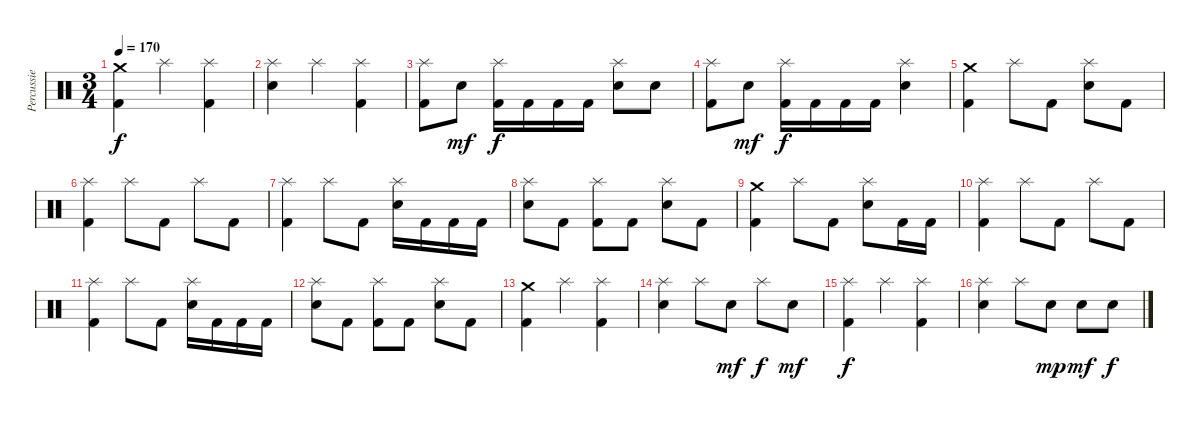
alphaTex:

\track ("Percussie" "Percussie") {instrument percussion}
\staff {score}
\articulation defaults
\ts (3 4)
\tempo 170
\clef neutral
\ks c
("Crash medium (hit)" "Kick (hit) 2").4{dy f} "Splash (hit)".4 ("Splash (hit)" "Kick (hit) 2").4 |
("Splash (hit)" "Electric Snare (hit)").4 "Splash (hit)".4 ("Splash (hit)" "Kick (hit) 2").4 |
("Splash (hit)" "Kick (hit) 2").8 "Electric Snare (hit)".8{dy mf} ("Splash (hit)" "Kick (hit) 2").16{dy f} "Kick (hit) 2".16 "Kick (hit) 2".16 "Kick (hit) 2".16 ("Splash (hit)" "Electric Snare (hit)").8 "Electric Snare (hit)".8 |
("Splash (hit)" "Kick (hit) 2").8 "Electric Snare (hit)".8{dy mf} ("Splash (hit)" "Kick (hit) 2").16{dy f} "Kick (hit) 2".16 "Kick (hit) 2".16 "Kick (hit) 2".16 ("Splash (hit)" "Electric Snare (hit)").4 |
("Crash medium (hit)" "Kick (hit) 2").4 "Splash (hit)".8 "Kick (hit) 2".8 ("Splash (hit)" "Electric Snare (hit)").8 "Kick (hit) 2".8 |
("Splash (hit)" "Kick (hit) 2").4 "Splash (hit)".8 "Kick (hit) 2".8 "Splash (hit)".8 "Kick (hit) 2".8 |
("Splash (hit)" "Kick (hit) 2").4 "Splash (hit)".8 "Kick (hit) 2".8 ("Splash (hit)" "Electric Snare (hit)").16 "Kick (hit) 2".16 "Kick (hit) 2".16 "Kick (hit) 2".16 |
("Splash (hit)" "Electric Snare (hit)").8 "Kick (hit) 2".8 ("Splash (hit)" "Kick (hit) 2").8 "Kick (hit) 2".8 ("Splash (hit)" "Electric Snare (hit)").8 "Kick (hit) 2".8 |
("Crash medium (hit)" "Kick (hit) 2").4 "Splash (hit)".8 "Kick (hit) 2".8 ("Splash (hit)" "Electric Snare (hit)").8 "Kick (hit) 2".16 "Kick (hit) 2".16 |
("Splash (hit)" "Kick (hit) 2").4 "Splash (hit)".8 "Kick (hit) 2".8 "Splash (hit)".8 "Kick (hit) 2".8 |
("Splash (hit)" "Kick (hit) 2").4 "Splash (hit)".8 "Kick (hit) 2".8 ("Splash (hit)" "Electric Snare (hit)").16 "Kick (hit) 2".16 "Kick (hit) 2".16 "Kick (hit) 2".16 |
("Splash (hit)" "Electric Snare (hit)").8 "Kick (hit) 2".8 ("Splash (hit)" "Kick (hit) 2").8 "Kick (hit) 2".8 ("Splash (hit)" "Electric Snare (hit)").8 "Kick (hit) 2".8 |
("Crash medium (hit)" "Kick (hit) 2").4 "Splash (hit)".4 ("Splash (hit)" "Kick (hit) 2").4 |
("Splash (hit)" "Electric Snare (hit)").4 "Splash (hit)".8 "Electric Snare (hit)".8{dy mf} "Splash (hit)".8{dy f} "Electric Snare (hit)".8{dy mf} |
("Splash (hit)" "Kick (hit) 2").4{dy f} "Splash (hit)".4 ("Splash (hit)" "Kick (hit) 2").4 |
("Splash (hit)" "Electric Snare (hit)").4 "Splash (hit)".8 "Electric Snare (hit)".8{dy mp} "Electric Snare (hit)".8{dy mf} "Electric Snare (hit)".8{dy f}
